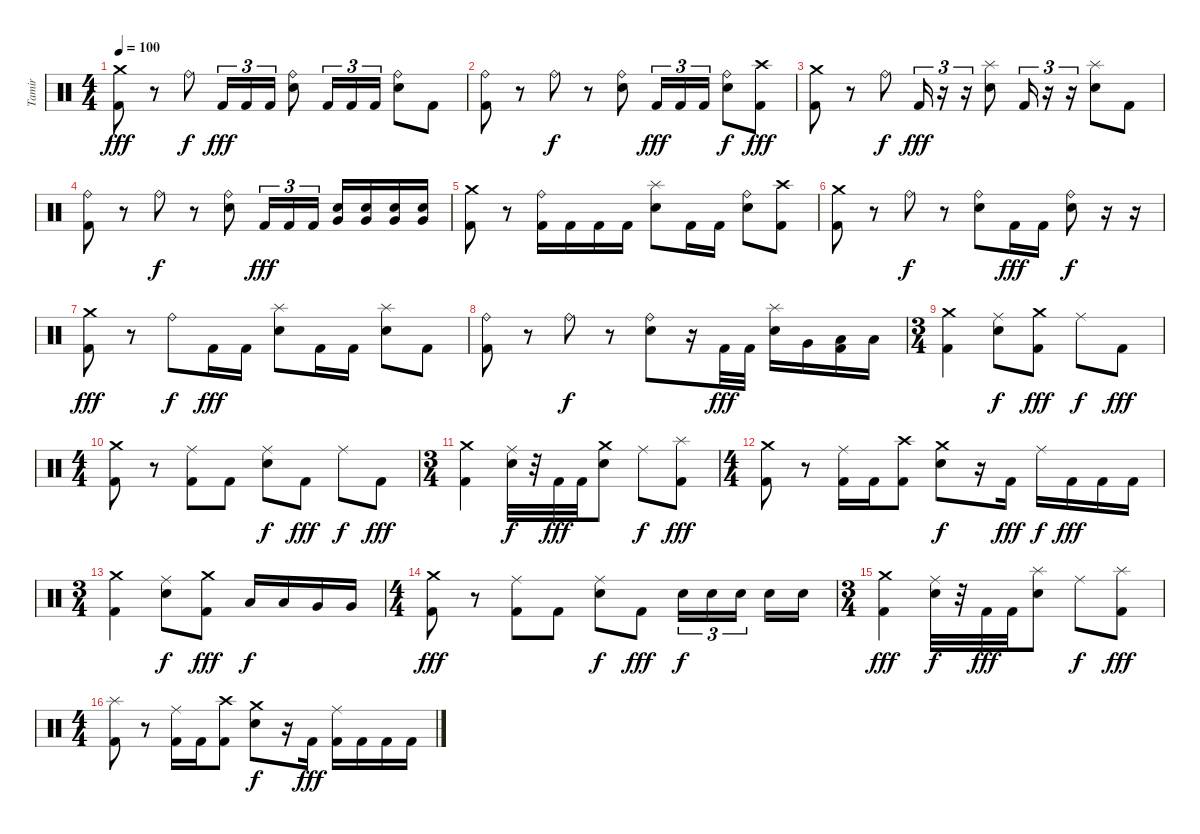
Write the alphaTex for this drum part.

\track ("Tamir" "Tamir") {instrument percussion}
\staff {score}
\articulation defaults
\ts (4 4)
\tempo 100
\clef neutral
\ks c
("Crash medium (hit)" "Kick (hit) 2").8{dy fff} r.8 "Ride (bell)".8{dy f} "Kick (hit) 2".16{tu (3 2) dy fff} "Kick (hit) 2".16{tu (3 2)} "Kick (hit) 2".16{tu (3 2)} ("Ride (bell)" "Electric Snare (hit)").8 "Kick (hit) 2".16{tu (3 2)} "Kick (hit) 2".16{tu (3 2)} "Kick (hit) 2".16{tu (3 2)} ("Ride (bell)" "Electric Snare (hit)").8 "Kick (hit) 2".8 |
("Ride (bell)" "Kick (hit) 2").8 r.8 "Ride (bell)".8{dy f} r.8 ("Ride (bell)" "Electric Snare (hit)").8 "Kick (hit) 2".16{tu (3 2) dy fff} "Kick (hit) 2".16{tu (3 2)} "Kick (hit) 2".16{tu (3 2)} ("Ride (bell)" "Electric Snare (hit)").8{dy f} ("Crash high (hit)" "Kick (hit) 2").8{dy fff} |
("Crash medium (hit)" "Kick (hit) 2").8 r.8 "Ride (bell)".8{dy f} "Kick (hit) 2".16{tu (3 2) dy fff} r.16{tu (3 2)} r.16{tu (3 2)} ("Splash (hit)" "Electric Snare (hit)").8 "Kick (hit) 2".16{tu (3 2)} r.16{tu (3 2)} r.16{tu (3 2)} ("Splash (hit)" "Electric Snare (hit)").8 "Kick (hit) 2".8 |
("Ride (bell)" "Kick (hit) 2").8 r.8 "Ride (bell)".8{dy f} r.8 ("Ride (bell)" "Electric Snare (hit)").8 "Kick (hit) 2".16{tu (3 2) dy fff} "Kick (hit) 2".16{tu (3 2)} "Kick (hit) 2".16{tu (3 2)} ("Very Low Tom (hit)" "Electric Snare (hit)").16 ("Very Low Tom (hit)" "Electric Snare (hit)").16 ("Very Low Tom (hit)" "Electric Snare (hit)").16 ("Very Low Tom (hit)" "Electric Snare (hit)").16 |
("Crash medium (hit)" "Kick (hit) 2").8 r.8 ("Ride (bell)" "Kick (hit) 2").16 "Kick (hit) 2".16 "Kick (hit) 2".16 "Kick (hit) 2".16 ("Splash (hit)" "Electric Snare (hit)").8 "Kick (hit) 2".16 "Kick (hit) 2".16 ("Ride (bell)" "Electric Snare (hit)").8 ("Crash high (hit)" "Kick (hit) 2").8 |
("Crash medium (hit)" "Kick (hit) 2").8 r.8 "Ride (bell)".8{dy f} r.8 ("Ride (bell)" "Electric Snare (hit)").8 "Kick (hit) 2".16{dy fff} "Kick (hit) 2".16 ("Ride (bell)" "Electric Snare (hit)").8{dy f} r.16 r.16 |
("Crash medium (hit)" "Kick (hit) 2").8{dy fff} r.8 "Ride (bell)".8{dy f} "Kick (hit) 2".16{dy fff} "Kick (hit) 2".16 ("Splash (hit)" "Electric Snare (hit)").8 "Kick (hit) 2".16 "Kick (hit) 2".16 ("Splash (hit)" "Electric Snare (hit)").8 "Kick (hit) 2".8 |
("Ride (bell)" "Kick (hit) 2").8 r.8 "Ride (bell)".8{dy f} r.8 ("Ride (bell)" "Electric Snare (hit)").8 r.16 "Kick (hit) 2".32{dy fff} "Kick (hit) 2".32 ("Splash (hit)" "Electric Snare (hit)").16 "Very Low Tom (hit)".16 ("Low Floor Tom (hit)" "Kick (hit) 2").16 "Low Floor Tom (hit)".16 |
\ts (3 4)
("Crash medium (hit)" "Kick (hit) 2").4 ("Ride (middle)" "Electric Snare (hit)").8{dy f} ("Crash medium (hit)" "Kick (hit) 2").8{dy fff} "Ride (middle)".8{dy f} "Kick (hit) 2".8{dy fff} |
\ts (4 4)
("Crash medium (hit)" "Kick (hit) 2").8 r.8 ("Ride (middle)" "Kick (hit) 2").8 "Kick (hit) 2".8 ("Ride (middle)" "Electric Snare (hit)").8{dy f} "Kick (hit) 2".8{dy fff} "Ride (middle)".8{dy f} "Kick (hit) 2".8{dy fff} |
\ts (3 4)
("Crash medium (hit)" "Kick (hit) 2").4 ("Ride (middle)" "Electric Snare (hit)").32{dy f} r.32 "Kick (hit) 2".32{dy fff} "Kick (hit) 2".32 ("Crash medium (hit)" "Electric Snare (hit)").8 "Ride (middle)".8{dy f} ("Splash (hit)" "Kick (hit) 2").8{dy fff} |
\ts (4 4)
("Crash medium (hit)" "Kick (hit) 2").8 r.8 ("Ride (middle)" "Kick (hit) 2").16 "Kick (hit) 2".16 ("Crash high (hit)" "Kick (hit) 2").8 ("Crash medium (hit)" "Electric Snare (hit)").8{dy f} r.16 "Kick (hit) 2".16{dy fff} "Ride (middle)".16{dy f} "Kick (hit) 2".16{dy fff} "Kick (hit) 2".16 "Kick (hit) 2".16 |
\ts (3 4)
("Crash medium (hit)" "Kick (hit) 2").4 ("Ride (middle)" "Electric Snare (hit)").8{dy f} ("Crash medium (hit)" "Kick (hit) 2").8{dy fff} "Low Tom (hit)".16{dy f} "Low Tom (hit)".16 "Very Low Tom (hit)".16 "Very Low Tom (hit)".16 |
\ts (4 4)
("Crash medium (hit)" "Kick (hit) 2").8{dy fff} r.8 ("Ride (middle)" "Kick (hit) 2").8 "Kick (hit) 2".8 ("Ride (middle)" "Electric Snare (hit)").8{dy f} "Kick (hit) 2".8{dy fff} "Electric Snare (hit)".16{tu (3 2) dy f} "Electric Snare (hit)".16{tu (3 2)} "Electric Snare (hit)".16{tu (3 2)} "Electric Snare (hit)".16 "Electric Snare (hit)".16 |
\ts (3 4)
("Crash medium (hit)" "Kick (hit) 2").4{dy fff} ("Ride (middle)" "Electric Snare (hit)").32{dy f} r.32 "Kick (hit) 2".32{dy fff} "Kick (hit) 2".32 ("Splash (hit)" "Electric Snare (hit)").8 "Ride (middle)".8{dy f} ("Splash (hit)" "Kick (hit) 2").8{dy fff} |
\ts (4 4)
("Splash (hit)" "Kick (hit) 2").8 r.8 ("Ride (middle)" "Kick (hit) 2").16 "Kick (hit) 2".16 ("Crash high (hit)" "Kick (hit) 2").8 ("Crash medium (hit)" "Electric Snare (hit)").8{dy f} r.16 "Kick (hit) 2".16{dy fff} ("Ride (middle)" "Kick (hit) 2").16 "Kick (hit) 2".16 "Kick (hit) 2".16 "Kick (hit) 2".16
